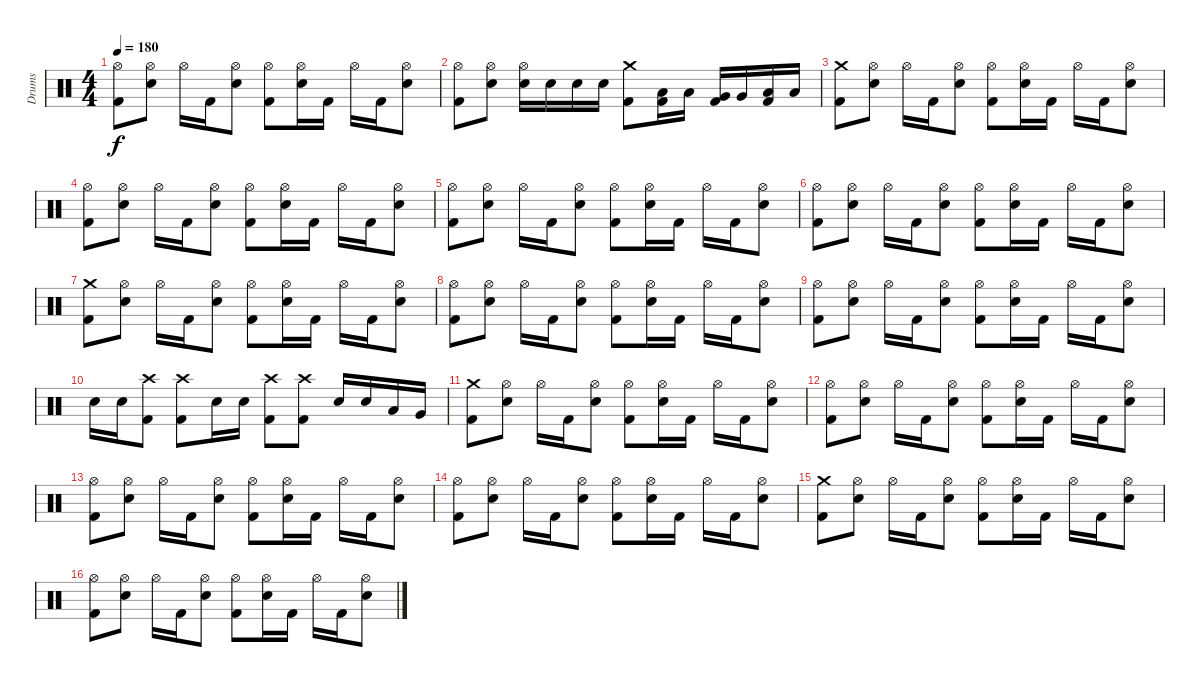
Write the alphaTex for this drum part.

\track ("Drums" "Drums") {instrument percussion}
\staff {score}
\articulation defaults
\ts (4 4)
\tempo 180
\clef neutral
\ks c
("Hi-Hat (open)" "Kick (hit) 2").8{dy f} ("Hi-Hat (open)" "Snare (hit) 2").8 "Hi-Hat (open)".16 "Kick (hit) 2".16 ("Hi-Hat (open)" "Snare (hit) 2").8 ("Hi-Hat (open)" "Kick (hit) 2").8 ("Hi-Hat (open)" "Snare (hit) 2").16 "Kick (hit) 2".16 "Hi-Hat (open)".16 "Kick (hit) 2".16 ("Hi-Hat (open)" "Snare (hit) 2").8 |
("Hi-Hat (open)" "Kick (hit) 2").8 ("Hi-Hat (open)" "Snare (hit) 2").8 ("Hi-Hat (open)" "Snare (hit) 2").16 "Snare (hit) 2".16 "Snare (hit) 2".16 "Snare (hit) 2".16 ("Crash medium (hit)" "Kick (hit) 2").8 ("Low Tom (hit)" "Kick (hit) 2").16 "Low Tom (hit)".16 ("Very Low Tom (hit)" "Kick (hit) 2").16 "Very Low Tom (hit)".16 ("Low Floor Tom (hit)" "Kick (hit) 2").16 "Low Floor Tom (hit)".16 |
("Crash medium (hit)" "Kick (hit) 2").8 ("Hi-Hat (open)" "Snare (hit) 2").8 "Hi-Hat (open)".16 "Kick (hit) 2".16 ("Hi-Hat (open)" "Snare (hit) 2").8 ("Hi-Hat (open)" "Kick (hit) 2").8 ("Hi-Hat (open)" "Snare (hit) 2").16 "Kick (hit) 2".16 "Hi-Hat (open)".16 "Kick (hit) 2".16 ("Hi-Hat (open)" "Snare (hit) 2").8 |
("Hi-Hat (open)" "Kick (hit) 2").8 ("Hi-Hat (open)" "Snare (hit) 2").8 "Hi-Hat (open)".16 "Kick (hit) 2".16 ("Hi-Hat (open)" "Snare (hit) 2").8 ("Hi-Hat (open)" "Kick (hit) 2").8 ("Hi-Hat (open)" "Snare (hit) 2").16 "Kick (hit) 2".16 "Hi-Hat (open)".16 "Kick (hit) 2".16 ("Hi-Hat (open)" "Snare (hit) 2").8 |
("Hi-Hat (open)" "Kick (hit) 2").8 ("Hi-Hat (open)" "Snare (hit) 2").8 "Hi-Hat (open)".16 "Kick (hit) 2".16 ("Hi-Hat (open)" "Snare (hit) 2").8 ("Hi-Hat (open)" "Kick (hit) 2").8 ("Hi-Hat (open)" "Snare (hit) 2").16 "Kick (hit) 2".16 "Hi-Hat (open)".16 "Kick (hit) 2".16 ("Hi-Hat (open)" "Snare (hit) 2").8 |
("Hi-Hat (open)" "Kick (hit) 2").8 ("Hi-Hat (open)" "Snare (hit) 2").8 "Hi-Hat (open)".16 "Kick (hit) 2".16 ("Hi-Hat (open)" "Snare (hit) 2").8 ("Hi-Hat (open)" "Kick (hit) 2").8 ("Hi-Hat (open)" "Snare (hit) 2").16 "Kick (hit) 2".16 "Hi-Hat (open)".16 "Kick (hit) 2".16 ("Hi-Hat (open)" "Snare (hit) 2").8 |
("Crash medium (hit)" "Kick (hit) 2").8 ("Hi-Hat (open)" "Snare (hit) 2").8 "Hi-Hat (open)".16 "Kick (hit) 2".16 ("Hi-Hat (open)" "Snare (hit) 2").8 ("Hi-Hat (open)" "Kick (hit) 2").8 ("Hi-Hat (open)" "Snare (hit) 2").16 "Kick (hit) 2".16 "Hi-Hat (open)".16 "Kick (hit) 2".16 ("Hi-Hat (open)" "Snare (hit) 2").8 |
("Hi-Hat (open)" "Kick (hit) 2").8 ("Hi-Hat (open)" "Snare (hit) 2").8 "Hi-Hat (open)".16 "Kick (hit) 2".16 ("Hi-Hat (open)" "Snare (hit) 2").8 ("Hi-Hat (open)" "Kick (hit) 2").8 ("Hi-Hat (open)" "Snare (hit) 2").16 "Kick (hit) 2".16 "Hi-Hat (open)".16 "Kick (hit) 2".16 ("Hi-Hat (open)" "Snare (hit) 2").8 |
("Hi-Hat (open)" "Kick (hit) 2").8 ("Hi-Hat (open)" "Snare (hit) 2").8 "Hi-Hat (open)".16 "Kick (hit) 2".16 ("Hi-Hat (open)" "Snare (hit) 2").8 ("Hi-Hat (open)" "Kick (hit) 2").8 ("Hi-Hat (open)" "Snare (hit) 2").16 "Kick (hit) 2".16 "Hi-Hat (open)".16 "Kick (hit) 2".16 ("Hi-Hat (open)" "Snare (hit) 2").8 |
"Snare (hit) 2".16 "Snare (hit) 2".16 ("Crash high (hit)" "Kick (hit) 2").8 ("Crash high (hit)" "Kick (hit) 2").8 "Snare (hit) 2".16 "Snare (hit) 2".16 ("Crash high (hit)" "Kick (hit) 2").8 ("Crash high (hit)" "Kick (hit) 2").8 "Snare (hit) 2".16 "Snare (hit) 2".16 "Low Tom (hit)".16 "Very Low Tom (hit)".16 |
("Crash medium (hit)" "Kick (hit) 2").8 ("Hi-Hat (open)" "Snare (hit) 2").8 "Hi-Hat (open)".16 "Kick (hit) 2".16 ("Hi-Hat (open)" "Snare (hit) 2").8 ("Hi-Hat (open)" "Kick (hit) 2").8 ("Hi-Hat (open)" "Snare (hit) 2").16 "Kick (hit) 2".16 "Hi-Hat (open)".16 "Kick (hit) 2".16 ("Hi-Hat (open)" "Snare (hit) 2").8 |
("Hi-Hat (open)" "Kick (hit) 2").8 ("Hi-Hat (open)" "Snare (hit) 2").8 "Hi-Hat (open)".16 "Kick (hit) 2".16 ("Hi-Hat (open)" "Snare (hit) 2").8 ("Hi-Hat (open)" "Kick (hit) 2").8 ("Hi-Hat (open)" "Snare (hit) 2").16 "Kick (hit) 2".16 "Hi-Hat (open)".16 "Kick (hit) 2".16 ("Hi-Hat (open)" "Snare (hit) 2").8 |
("Hi-Hat (open)" "Kick (hit) 2").8 ("Hi-Hat (open)" "Snare (hit) 2").8 "Hi-Hat (open)".16 "Kick (hit) 2".16 ("Hi-Hat (open)" "Snare (hit) 2").8 ("Hi-Hat (open)" "Kick (hit) 2").8 ("Hi-Hat (open)" "Snare (hit) 2").16 "Kick (hit) 2".16 "Hi-Hat (open)".16 "Kick (hit) 2".16 ("Hi-Hat (open)" "Snare (hit) 2").8 |
("Hi-Hat (open)" "Kick (hit) 2").8 ("Hi-Hat (open)" "Snare (hit) 2").8 "Hi-Hat (open)".16 "Kick (hit) 2".16 ("Hi-Hat (open)" "Snare (hit) 2").8 ("Hi-Hat (open)" "Kick (hit) 2").8 ("Hi-Hat (open)" "Snare (hit) 2").16 "Kick (hit) 2".16 "Hi-Hat (open)".16 "Kick (hit) 2".16 ("Hi-Hat (open)" "Snare (hit) 2").8 |
("Crash medium (hit)" "Kick (hit) 2").8 ("Hi-Hat (open)" "Snare (hit) 2").8 "Hi-Hat (open)".16 "Kick (hit) 2".16 ("Hi-Hat (open)" "Snare (hit) 2").8 ("Hi-Hat (open)" "Kick (hit) 2").8 ("Hi-Hat (open)" "Snare (hit) 2").16 "Kick (hit) 2".16 "Hi-Hat (open)".16 "Kick (hit) 2".16 ("Hi-Hat (open)" "Snare (hit) 2").8 |
("Hi-Hat (open)" "Kick (hit) 2").8 ("Hi-Hat (open)" "Snare (hit) 2").8 "Hi-Hat (open)".16 "Kick (hit) 2".16 ("Hi-Hat (open)" "Snare (hit) 2").8 ("Hi-Hat (open)" "Kick (hit) 2").8 ("Hi-Hat (open)" "Snare (hit) 2").16 "Kick (hit) 2".16 "Hi-Hat (open)".16 "Kick (hit) 2".16 ("Hi-Hat (open)" "Snare (hit) 2").8
